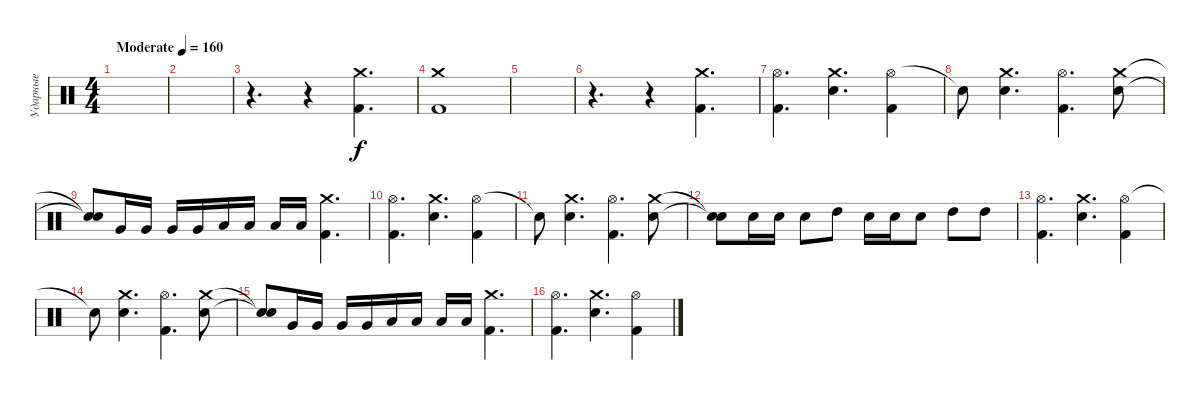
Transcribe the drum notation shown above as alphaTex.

\track ("Ударные" "Ударные") {instrument percussion}
\staff {score}
\articulation defaults
\ts (4 4)
\tempo (160 "Moderate")
\clef neutral
\ks c
|
|
r.4{d} r.4 ("Crash medium (hit)" "Kick (hit) 2").4{d} |
("Crash medium (hit)" "Kick (hit) 2").1 |
|
r.4{d} r.4 ("Crash medium (hit)" "Kick (hit) 2").4{d} |
("Hi-Hat (open)" "Kick (hit) 2").4{d} ("Crash medium (hit)" "Electric Snare (hit)").4{d} ("Hi-Hat (open)" "Kick (hit) 2").4 |
"Snare (hit)"{t}.8 ("Crash medium (hit)" "Electric Snare (hit)").4{d} ("Hi-Hat (open)" "Kick (hit) 2").4{d} ("Crash medium (hit)" "Electric Snare (hit)").8 |
("Snare (hit)"{t} "Snare (hit)"{t}).8 "Very Low Tom (hit)".16 "Very Low Tom (hit)".16 "Very Low Tom (hit)".16 "Very Low Tom (hit)".16 "Low Floor Tom (hit)".16 "Low Floor Tom (hit)".16 "Low Floor Tom (hit)".16 "Low Floor Tom (hit)".16 ("Crash medium (hit)" "Kick (hit) 2").4{d} |
("Hi-Hat (open)" "Kick (hit) 2").4{d} ("Crash medium (hit)" "Electric Snare (hit)").4{d} ("Hi-Hat (open)" "Kick (hit) 2").4 |
"Snare (hit)"{t}.8 ("Crash medium (hit)" "Electric Snare (hit)").4{d} ("Hi-Hat (open)" "Kick (hit) 2").4{d} ("Crash medium (hit)" "Electric Snare (hit)").8 |
("Snare (hit)"{t} "Snare (hit)"{t}).8 "Electric Snare (hit)".16 "Electric Snare (hit)".16 "Electric Snare (hit)".8 "High Tom (hit)".8 "Electric Snare (hit)".16 "Electric Snare (hit)".16 "Electric Snare (hit)".8 "High Tom (hit)".8 "High Tom (hit)".8 |
("Hi-Hat (open)" "Kick (hit) 2").4{d} ("Crash medium (hit)" "Electric Snare (hit)").4{d} ("Hi-Hat (open)" "Kick (hit) 2").4 |
"Snare (hit)"{t}.8 ("Crash medium (hit)" "Electric Snare (hit)").4{d} ("Hi-Hat (open)" "Kick (hit) 2").4{d} ("Crash medium (hit)" "Electric Snare (hit)").8 |
("Snare (hit)"{t} "Snare (hit)"{t}).8 "Very Low Tom (hit)".16 "Very Low Tom (hit)".16 "Very Low Tom (hit)".16 "Very Low Tom (hit)".16 "Low Floor Tom (hit)".16 "Low Floor Tom (hit)".16 "Low Floor Tom (hit)".16 "Low Floor Tom (hit)".16 ("Crash medium (hit)" "Kick (hit) 2").4{d} |
("Hi-Hat (open)" "Kick (hit) 2").4{d} ("Crash medium (hit)" "Electric Snare (hit)").4{d} ("Hi-Hat (open)" "Kick (hit) 2").4
